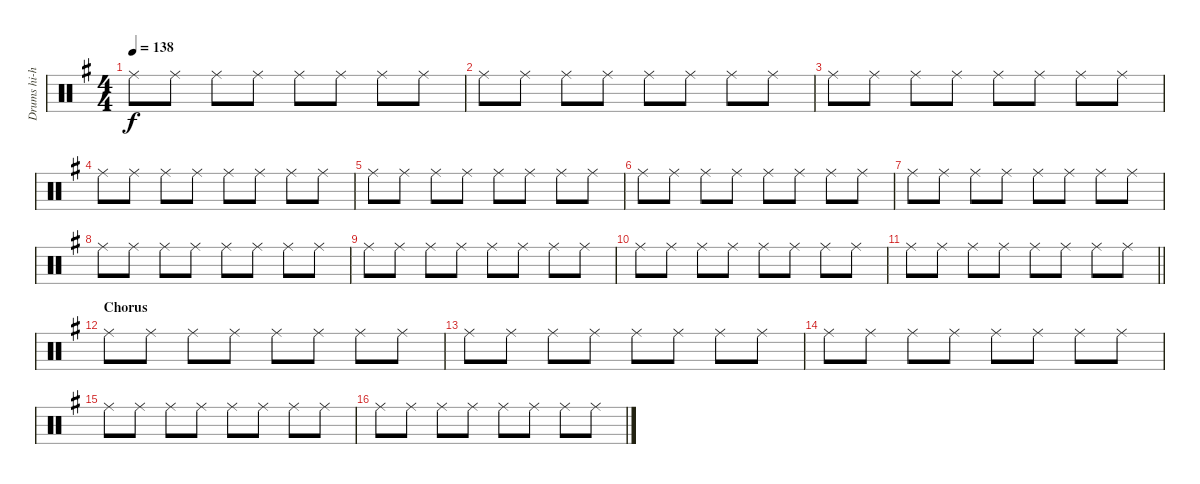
\track ("Drums hi-hat" "Drums hi-h") {instrument percussion}
\staff {score}
\articulation defaults
\ts (4 4)
\tempo 138
\clef neutral
\ks g "Ride (middle)".8{dy f} "Ride (middle)".8 "Ride (middle)".8 "Ride (middle)".8 "Ride (middle)".8 "Ride (middle)".8 "Ride (middle)".8 "Ride (middle)".8
|
"Ride (middle)".8 "Ride (middle)".8 "Ride (middle)".8 "Ride (middle)".8 "Ride (middle)".8 "Ride (middle)".8 "Ride (middle)".8 "Ride (middle)".8 |
"Ride (middle)".8 "Ride (middle)".8 "Ride (middle)".8 "Ride (middle)".8 "Ride (middle)".8 "Ride (middle)".8 "Ride (middle)".8 "Ride (middle)".8 |
"Ride (middle)".8 "Ride (middle)".8 "Ride (middle)".8 "Ride (middle)".8 "Ride (middle)".8 "Ride (middle)".8 "Ride (middle)".8 "Ride (middle)".8 |
"Ride (middle)".8 "Ride (middle)".8 "Ride (middle)".8 "Ride (middle)".8 "Ride (middle)".8 "Ride (middle)".8 "Ride (middle)".8 "Ride (middle)".8 |
"Ride (middle)".8 "Ride (middle)".8 "Ride (middle)".8 "Ride (middle)".8 "Ride (middle)".8 "Ride (middle)".8 "Ride (middle)".8 "Ride (middle)".8 |
"Ride (middle)".8 "Ride (middle)".8 "Ride (middle)".8 "Ride (middle)".8 "Ride (middle)".8 "Ride (middle)".8 "Ride (middle)".8 "Ride (middle)".8 |
"Ride (middle)".8 "Ride (middle)".8 "Ride (middle)".8 "Ride (middle)".8 "Ride (middle)".8 "Ride (middle)".8 "Ride (middle)".8 "Ride (middle)".8 |
"Ride (middle)".8 "Ride (middle)".8 "Ride (middle)".8 "Ride (middle)".8 "Ride (middle)".8 "Ride (middle)".8 "Ride (middle)".8 "Ride (middle)".8 |
"Ride (middle)".8 "Ride (middle)".8 "Ride (middle)".8 "Ride (middle)".8 "Ride (middle)".8 "Ride (middle)".8 "Ride (middle)".8 "Ride (middle)".8 |
\barLineRight lightlight "Ride (middle)".8 "Ride (middle)".8 "Ride (middle)".8 "Ride (middle)".8 "Ride (middle)".8 "Ride (middle)".8 "Ride (middle)".8 "Ride (middle)".8
|
\section ("" "Chorus")
"Ride (middle)".8 "Ride (middle)".8 "Ride (middle)".8 "Ride (middle)".8 "Ride (middle)".8 "Ride (middle)".8 "Ride (middle)".8 "Ride (middle)".8 |
"Ride (middle)".8 "Ride (middle)".8 "Ride (middle)".8 "Ride (middle)".8 "Ride (middle)".8 "Ride (middle)".8 "Ride (middle)".8 "Ride (middle)".8 |
"Ride (middle)".8 "Ride (middle)".8 "Ride (middle)".8 "Ride (middle)".8 "Ride (middle)".8 "Ride (middle)".8 "Ride (middle)".8 "Ride (middle)".8 |
"Ride (middle)".8 "Ride (middle)".8 "Ride (middle)".8 "Ride (middle)".8 "Ride (middle)".8 "Ride (middle)".8 "Ride (middle)".8 "Ride (middle)".8 |
"Ride (middle)".8 "Ride (middle)".8 "Ride (middle)".8 "Ride (middle)".8 "Ride (middle)".8 "Ride (middle)".8 "Ride (middle)".8 "Ride (middle)".8
